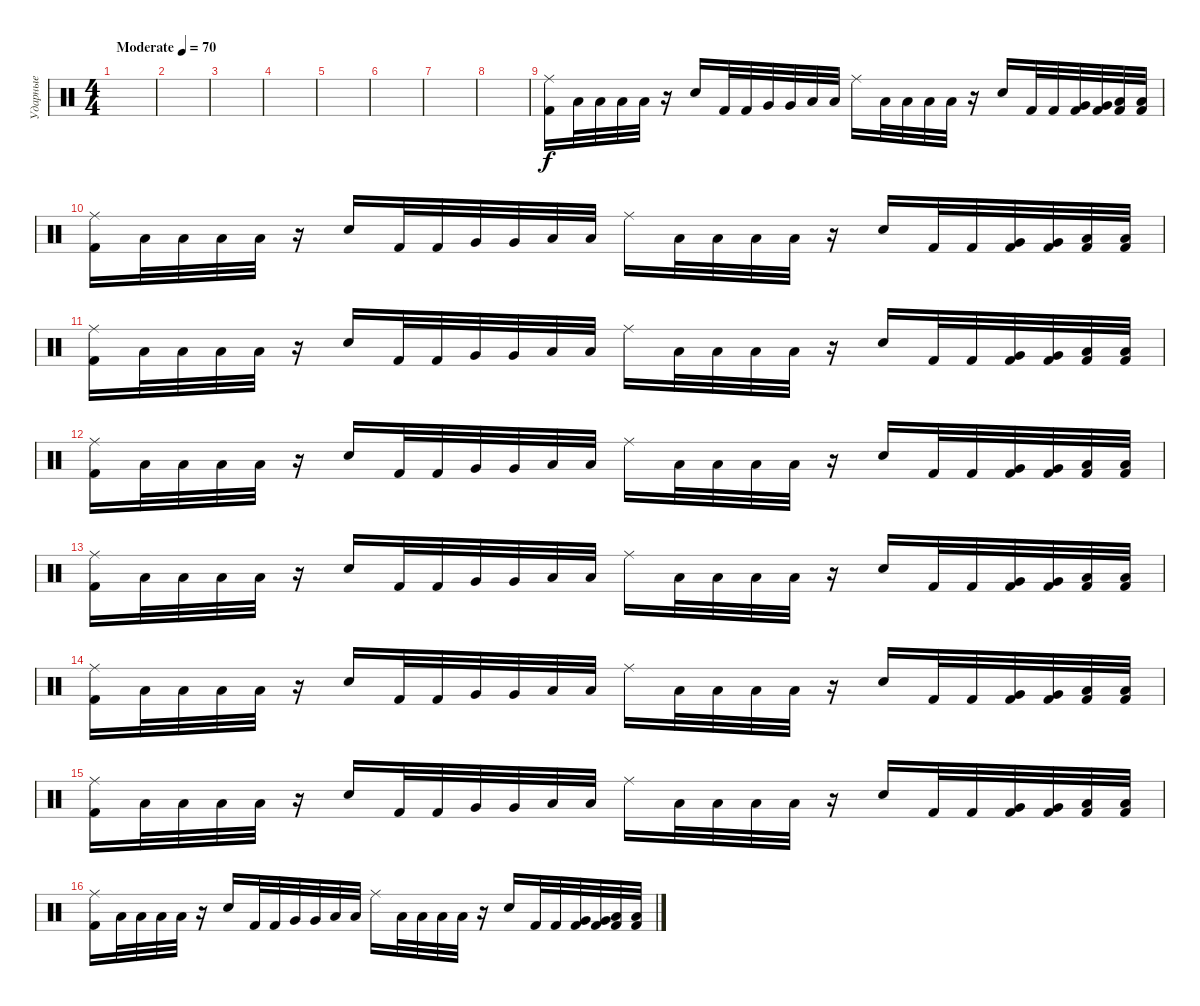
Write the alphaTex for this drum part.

\track ("Ударные" "Ударные") {instrument percussion}
\staff {score}
\articulation defaults
\ts (4 4)
\tempo (70 "Moderate")
\clef neutral
\ks c
|
|
|
|
|
|
|
|
("Ride (middle)" "Kick (hit) 2").16 "Low Tom (hit)".32 "Low Tom (hit)".32 "Low Tom (hit)".32 "Low Tom (hit)".32 r.16 "Electric Snare (hit)".16 "Kick (hit) 2".32 "Kick (hit) 2".32 "Very Low Tom (hit)".32 "Very Low Tom (hit)".32 "Low Floor Tom (hit)".32 "Low Floor Tom (hit)".32 "Ride (middle)".16 "Low Tom (hit)".32 "Low Tom (hit)".32 "Low Tom (hit)".32 "Low Tom (hit)".32 r.16 "Electric Snare (hit)".16 "Kick (hit) 2".32 "Kick (hit) 2".32 ("Very Low Tom (hit)" "Kick (hit) 2").32 ("Very Low Tom (hit)" "Kick (hit) 2").32 ("Low Floor Tom (hit)" "Kick (hit) 2").32 ("Low Floor Tom (hit)" "Kick (hit) 2").32 |
("Ride (middle)" "Kick (hit) 2").16 "Low Tom (hit)".32 "Low Tom (hit)".32 "Low Tom (hit)".32 "Low Tom (hit)".32 r.16 "Electric Snare (hit)".16 "Kick (hit) 2".32 "Kick (hit) 2".32 "Very Low Tom (hit)".32 "Very Low Tom (hit)".32 "Low Floor Tom (hit)".32 "Low Floor Tom (hit)".32 "Ride (middle)".16 "Low Tom (hit)".32 "Low Tom (hit)".32 "Low Tom (hit)".32 "Low Tom (hit)".32 r.16 "Electric Snare (hit)".16 "Kick (hit) 2".32 "Kick (hit) 2".32 ("Very Low Tom (hit)" "Kick (hit) 2").32 ("Very Low Tom (hit)" "Kick (hit) 2").32 ("Low Floor Tom (hit)" "Kick (hit) 2").32 ("Low Floor Tom (hit)" "Kick (hit) 2").32 |
("Ride (middle)" "Kick (hit) 2").16 "Low Tom (hit)".32 "Low Tom (hit)".32 "Low Tom (hit)".32 "Low Tom (hit)".32 r.16 "Electric Snare (hit)".16 "Kick (hit) 2".32 "Kick (hit) 2".32 "Very Low Tom (hit)".32 "Very Low Tom (hit)".32 "Low Floor Tom (hit)".32 "Low Floor Tom (hit)".32 "Ride (middle)".16 "Low Tom (hit)".32 "Low Tom (hit)".32 "Low Tom (hit)".32 "Low Tom (hit)".32 r.16 "Electric Snare (hit)".16 "Kick (hit) 2".32 "Kick (hit) 2".32 ("Very Low Tom (hit)" "Kick (hit) 2").32 ("Very Low Tom (hit)" "Kick (hit) 2").32 ("Low Floor Tom (hit)" "Kick (hit) 2").32 ("Low Floor Tom (hit)" "Kick (hit) 2").32 |
("Ride (middle)" "Kick (hit) 2").16 "Low Tom (hit)".32 "Low Tom (hit)".32 "Low Tom (hit)".32 "Low Tom (hit)".32 r.16 "Electric Snare (hit)".16 "Kick (hit) 2".32 "Kick (hit) 2".32 "Very Low Tom (hit)".32 "Very Low Tom (hit)".32 "Low Floor Tom (hit)".32 "Low Floor Tom (hit)".32 "Ride (middle)".16 "Low Tom (hit)".32 "Low Tom (hit)".32 "Low Tom (hit)".32 "Low Tom (hit)".32 r.16 "Electric Snare (hit)".16 "Kick (hit) 2".32 "Kick (hit) 2".32 ("Very Low Tom (hit)" "Kick (hit) 2").32 ("Very Low Tom (hit)" "Kick (hit) 2").32 ("Low Floor Tom (hit)" "Kick (hit) 2").32 ("Low Floor Tom (hit)" "Kick (hit) 2").32 |
("Ride (middle)" "Kick (hit) 2").16 "Low Tom (hit)".32 "Low Tom (hit)".32 "Low Tom (hit)".32 "Low Tom (hit)".32 r.16 "Electric Snare (hit)".16 "Kick (hit) 2".32 "Kick (hit) 2".32 "Very Low Tom (hit)".32 "Very Low Tom (hit)".32 "Low Floor Tom (hit)".32 "Low Floor Tom (hit)".32 "Ride (middle)".16 "Low Tom (hit)".32 "Low Tom (hit)".32 "Low Tom (hit)".32 "Low Tom (hit)".32 r.16 "Electric Snare (hit)".16 "Kick (hit) 2".32 "Kick (hit) 2".32 ("Very Low Tom (hit)" "Kick (hit) 2").32 ("Very Low Tom (hit)" "Kick (hit) 2").32 ("Low Floor Tom (hit)" "Kick (hit) 2").32 ("Low Floor Tom (hit)" "Kick (hit) 2").32 |
("Ride (middle)" "Kick (hit) 2").16 "Low Tom (hit)".32 "Low Tom (hit)".32 "Low Tom (hit)".32 "Low Tom (hit)".32 r.16 "Electric Snare (hit)".16 "Kick (hit) 2".32 "Kick (hit) 2".32 "Very Low Tom (hit)".32 "Very Low Tom (hit)".32 "Low Floor Tom (hit)".32 "Low Floor Tom (hit)".32 "Ride (middle)".16 "Low Tom (hit)".32 "Low Tom (hit)".32 "Low Tom (hit)".32 "Low Tom (hit)".32 r.16 "Electric Snare (hit)".16 "Kick (hit) 2".32 "Kick (hit) 2".32 ("Very Low Tom (hit)" "Kick (hit) 2").32 ("Very Low Tom (hit)" "Kick (hit) 2").32 ("Low Floor Tom (hit)" "Kick (hit) 2").32 ("Low Floor Tom (hit)" "Kick (hit) 2").32 |
("Ride (middle)" "Kick (hit) 2").16 "Low Tom (hit)".32 "Low Tom (hit)".32 "Low Tom (hit)".32 "Low Tom (hit)".32 r.16 "Electric Snare (hit)".16 "Kick (hit) 2".32 "Kick (hit) 2".32 "Very Low Tom (hit)".32 "Very Low Tom (hit)".32 "Low Floor Tom (hit)".32 "Low Floor Tom (hit)".32 "Ride (middle)".16 "Low Tom (hit)".32 "Low Tom (hit)".32 "Low Tom (hit)".32 "Low Tom (hit)".32 r.16 "Electric Snare (hit)".16 "Kick (hit) 2".32 "Kick (hit) 2".32 ("Very Low Tom (hit)" "Kick (hit) 2").32 ("Very Low Tom (hit)" "Kick (hit) 2").32 ("Low Floor Tom (hit)" "Kick (hit) 2").32 ("Low Floor Tom (hit)" "Kick (hit) 2").32 |
("Ride (middle)" "Kick (hit) 2").16 "Low Tom (hit)".32 "Low Tom (hit)".32 "Low Tom (hit)".32 "Low Tom (hit)".32 r.16 "Electric Snare (hit)".16 "Kick (hit) 2".32 "Kick (hit) 2".32 "Very Low Tom (hit)".32 "Very Low Tom (hit)".32 "Low Floor Tom (hit)".32 "Low Floor Tom (hit)".32 "Ride (middle)".16 "Low Tom (hit)".32 "Low Tom (hit)".32 "Low Tom (hit)".32 "Low Tom (hit)".32 r.16 "Electric Snare (hit)".16 "Kick (hit) 2".32 "Kick (hit) 2".32 ("Very Low Tom (hit)" "Kick (hit) 2").32 ("Very Low Tom (hit)" "Kick (hit) 2").32 ("Low Floor Tom (hit)" "Kick (hit) 2").32 ("Low Floor Tom (hit)" "Kick (hit) 2").32
